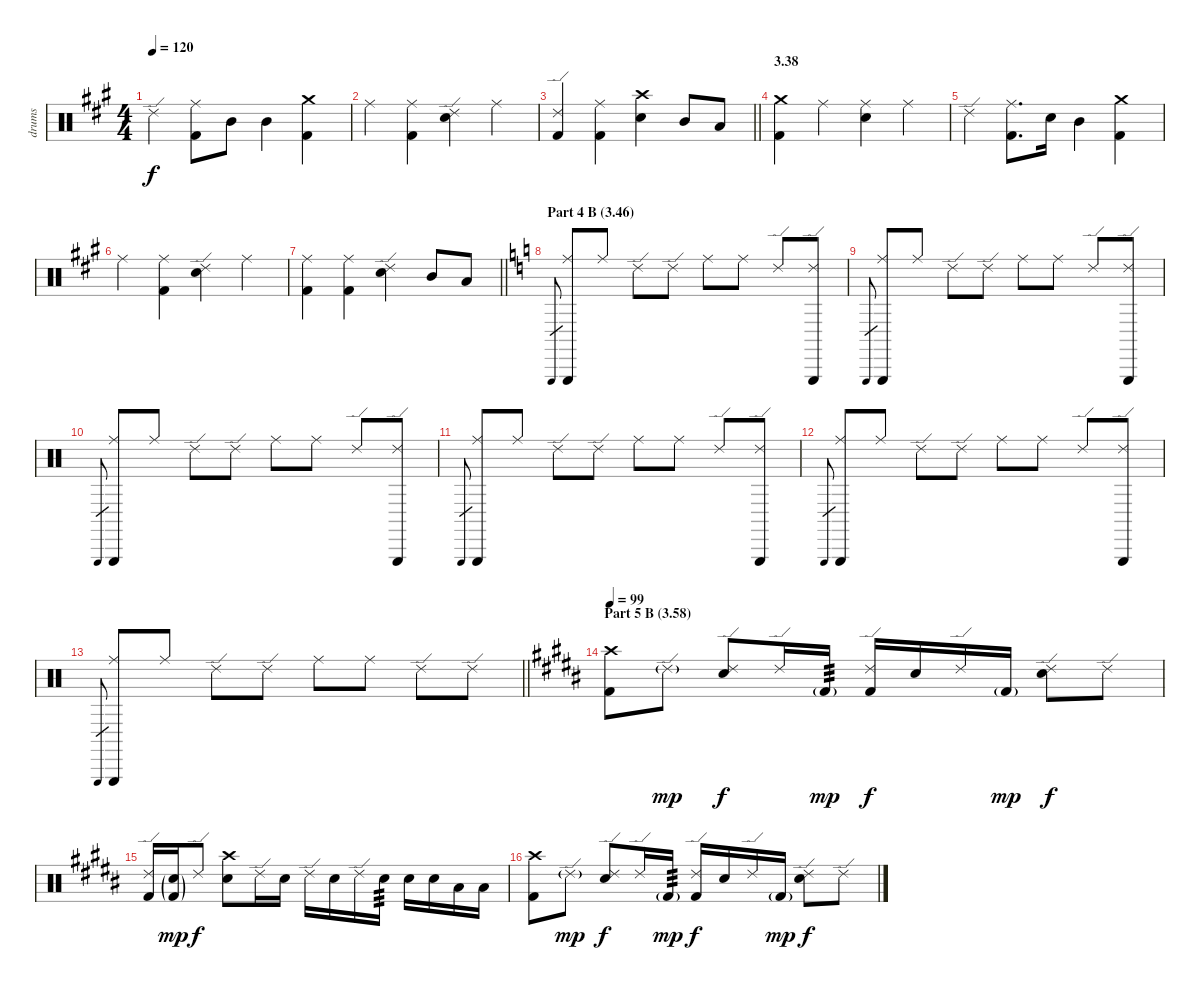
\track ("drums" "drums") {instrument percussion}
\staff {score}
\articulation defaults
\ts (4 4)
\tempo 120
\clef neutral
\ks a "Ride (edge) 2".4{dy f}
("Ride (middle)" "Kick (hit) 2").8 "Mid Tom (hit)".8 "Mid Tom (hit)".4 ("Crash medium (hit)" "Kick (hit) 2").4 |
"Ride (middle)".4 ("Ride (middle)" "Kick (hit) 2").4 ("Ride (edge) 2" "Electric Snare (hit)").4 "Ride (middle)".4 |
\barLineRight lightlight
("Ride (edge) 2" "Kick (hit) 2").4 ("Ride (middle)" "Kick (hit) 2").4 ("Crash high (hit)" "Electric Snare (hit)").4 "Mid Tom (hit)".8 "Low Tom (hit)".8 |
\section ("" "3.38")
("Crash medium (hit)" "Kick (hit) 2").4 "Ride (middle)".4 ("Ride (middle)" "Electric Snare (hit)").4 "Ride (middle)".4 |
"Ride (edge) 2".4 ("Ride (middle)" "Kick (hit) 2").8{d} "Electric Snare (hit)".16 "Mid Tom (hit)".4 ("Crash medium (hit)" "Kick (hit) 2").4 |
"Ride (middle)".4 ("Ride (middle)" "Kick (hit) 2").4 ("Ride (edge) 2" "Electric Snare (hit)").4 "Ride (middle)".4 |
\barLineRight lightlight
("Ride (middle)" "Kick (hit) 2").4 ("Ride (middle)" "Kick (hit) 2").4 ("Ride (edge) 2" "Electric Snare (hit)").4 "Mid Tom (hit)".8 "Low Tom (hit)".8 |
\section ("" "Part 4 B (3.46)")
\ks c "Triangle (hit)".8{gr}
("Ride (middle)" "Triangle (hit)").8 "Ride (middle)".8 "Ride (edge) 2".8 "Ride (edge) 2".8 "Ride (middle)".8 "Ride (middle)".8 "Ride (edge) 2".8 ("Ride (edge) 2" "Triangle (hit)").8 |
"Triangle (hit)".8{gr} ("Ride (middle)" "Triangle (hit)").8 "Ride (middle)".8 "Ride (edge) 2".8 "Ride (edge) 2".8 "Ride (middle)".8 "Ride (middle)".8 "Ride (edge) 2".8 ("Ride (edge) 2" "Triangle (hit)").8 |
"Triangle (hit)".8{gr} ("Ride (middle)" "Triangle (hit)").8 "Ride (middle)".8 "Ride (edge) 2".8 "Ride (edge) 2".8 "Ride (middle)".8 "Ride (middle)".8 "Ride (edge) 2".8 ("Ride (edge) 2" "Triangle (hit)").8 |
"Triangle (hit)".8{gr} ("Ride (middle)" "Triangle (hit)").8 "Ride (middle)".8 "Ride (edge) 2".8 "Ride (edge) 2".8 "Ride (middle)".8 "Ride (middle)".8 "Ride (edge) 2".8 ("Ride (edge) 2" "Triangle (hit)").8 |
"Triangle (hit)".8{gr} ("Ride (middle)" "Triangle (hit)").8 "Ride (middle)".8 "Ride (edge) 2".8 "Ride (edge) 2".8 "Ride (middle)".8 "Ride (middle)".8 "Ride (edge) 2".8 ("Ride (edge) 2" "Triangle (hit)").8 |
\barLineRight lightlight "Triangle (hit)".8{gr}
("Ride (middle)" "Triangle (hit)").8 "Ride (middle)".8 "Ride (edge) 2".8 "Ride (edge) 2".8 "Ride (middle)".8 "Ride (middle)".8 "Ride (edge) 2".8 "Ride (edge) 2".8 |
\section ("" "Part 5 B (3.58)")
\tempo 99
\ks b
("Crash high (hit)" "Kick (hit) 2").8 "Ride (edge) 2"{g}.8{dy mp} ("Ride (edge) 2" "Electric Snare (hit)").8{dy f} "Ride (edge) 2".16 "Kick (hit) 2"{g}.16{tp 3 dy mp} ("Ride (edge) 2" "Kick (hit) 2").16{dy f} "Electric Snare (hit)".16 "Ride (edge) 2".16 "Kick (hit) 2"{g}.16{dy mp} ("Ride (edge) 2" "Electric Snare (hit)").8{dy f} "Ride (edge) 2".8 |
("Ride (edge) 2" "Kick (hit) 2").16 ("Electric Snare (hit)"{g} "Kick (hit) 2"{g}).16{dy mp} "Ride (edge) 2".8{dy f} ("Crash high (hit)" "Electric Snare (hit)").8 "Ride (edge) 2".16 "Electric Snare (hit)".16 "Ride (edge) 2".16 "Electric Snare (hit)".16 "Ride (edge) 2".16 "Electric Snare (hit)".16{tp 3} "Electric Snare (hit)".16 "Electric Snare (hit)".16 "Low Tom (hit)".16 "Low Tom (hit)".16 |
("Crash high (hit)" "Kick (hit) 2").8 "Ride (edge) 2"{g}.8{dy mp} ("Ride (edge) 2" "Electric Snare (hit)").8{dy f} "Ride (edge) 2".16 "Kick (hit) 2"{g}.16{tp 3 dy mp} ("Ride (edge) 2" "Kick (hit) 2").16{dy f} "Electric Snare (hit)".16 "Ride (edge) 2".16 "Kick (hit) 2"{g}.16{dy mp} ("Ride (edge) 2" "Electric Snare (hit)").8{dy f} "Ride (edge) 2".8
